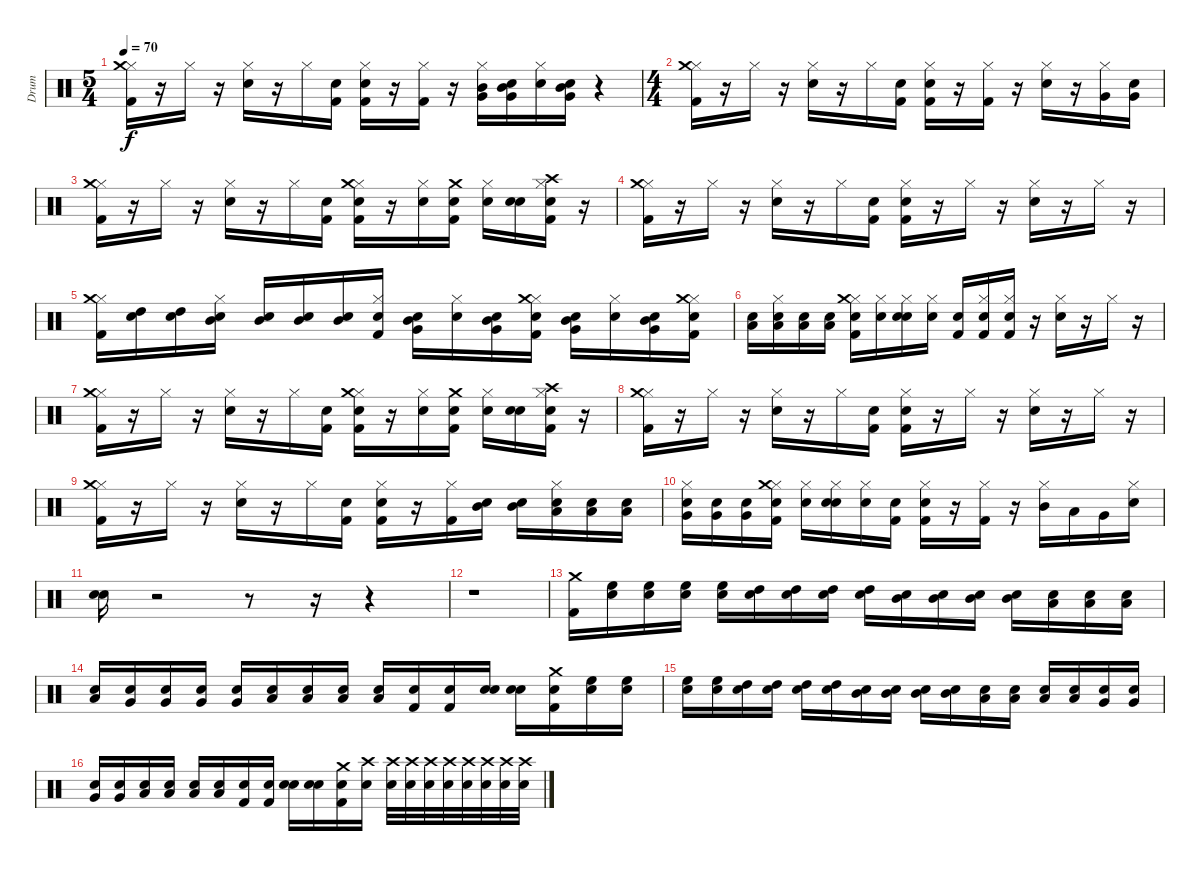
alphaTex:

\track ("Drum" "Drum") {instrument percussion}
\staff {score}
\articulation defaults
\ts (5 4)
\tempo 70
\clef neutral
\ks c
("Kick (hit) 2" "Hi-Hat (closed)" "Crash medium (hit)").16{dy f} r.16 "Hi-Hat (closed)".16 r.16 ("Hi-Hat (closed)" "Snare (hit) 2").16 r.16 "Hi-Hat (closed)".16 ("Snare (hit)" "Kick (hit) 2").16 ("Snare (hit)" "Kick (hit) 2" "Hi-Hat (closed)").16 r.16 ("Kick (hit) 2" "Hi-Hat (closed)").16 r.16 ("Hi-Hat (closed)" "Very Low Tom (hit)" "Mid Tom (hit)").16 ("Snare (hit)" "Mid Tom (hit)" "Very Low Tom (hit)").16 ("Snare (hit)" "Hi-Hat (closed)").16 ("Snare (hit)" "Very Low Tom (hit)" "Mid Tom (hit)").16 r.4 |
\ts (4 4)
("Kick (hit) 2" "Hi-Hat (closed)" "Crash medium (hit)").16 r.16 "Hi-Hat (closed)".16 r.16 ("Hi-Hat (closed)" "Snare (hit) 2").16 r.16 "Hi-Hat (closed)".16 ("Snare (hit)" "Kick (hit) 2").16 ("Snare (hit)" "Kick (hit) 2" "Hi-Hat (closed)").16 r.16 ("Kick (hit) 2" "Hi-Hat (closed)").16 r.16 ("Hi-Hat (closed)" "Snare (hit) 2").16 r.16 ("Hi-Hat (closed)" "Very Low Tom (hit)").16 ("Snare (hit)" "Very Low Tom (hit)").16 |
("Kick (hit) 2" "Hi-Hat (closed)" "Crash medium (hit)").16 r.16 "Hi-Hat (closed)".16 r.16 ("Hi-Hat (closed)" "Snare (hit) 2").16 r.16 "Hi-Hat (closed)".16 ("Snare (hit)" "Kick (hit) 2").16 ("Snare (hit)" "Kick (hit) 2" "Hi-Hat (closed)" "Crash medium (hit)").16 r.16 ("Hi-Hat (closed)" "Snare (hit) 2").16 ("Snare (hit)" "Kick (hit) 2" "Crash medium (hit)").16 ("Snare (hit)" "Hi-Hat (closed)").16 ("Snare (hit)" "Snare (hit) 2").16 ("Snare (hit)" "Kick (hit) 2" "Hi-Hat (closed)" "Crash high (hit)").16 r.16 |
("Kick (hit) 2" "Hi-Hat (closed)" "Crash medium (hit)").16 r.16 "Hi-Hat (closed)".16 r.16 ("Hi-Hat (closed)" "Snare (hit) 2").16 r.16 "Hi-Hat (closed)".16 ("Snare (hit)" "Kick (hit) 2").16 ("Snare (hit)" "Kick (hit) 2" "Hi-Hat (closed)").16 r.16 "Hi-Hat (closed)".16 r.16 ("Hi-Hat (closed)" "Snare (hit) 2").16 r.16 "Hi-Hat (closed)".16 r.16 |
("Kick (hit) 2" "Hi-Hat (closed)" "Crash medium (hit)").16 ("Snare (hit)" "High Tom (hit)").16 ("Snare (hit)" "High Tom (hit)").16 ("Snare (hit)" "Hi-Hat (closed)" "Mid Tom (hit)").16 ("Snare (hit)" "Mid Tom (hit)").16 ("Snare (hit)" "Mid Tom (hit)").16 ("Snare (hit)" "Mid Tom (hit)").16 ("Snare (hit)" "Kick (hit) 2" "Hi-Hat (closed)").16 ("Snare (hit)" "Mid Tom (hit)" "Very Low Tom (hit)").16 ("Snare (hit)" "Hi-Hat (closed)").16 ("Snare (hit)" "Very Low Tom (hit)" "Mid Tom (hit)").16 ("Snare (hit)" "Kick (hit) 2" "Hi-Hat (closed)" "Crash medium (hit)").16 ("Snare (hit)" "Mid Tom (hit)" "Very Low Tom (hit)").16 ("Snare (hit)" "Hi-Hat (closed)").16 ("Snare (hit)" "Very Low Tom (hit)" "Mid Tom (hit)").16 ("Snare (hit)" "Kick (hit) 2" "Hi-Hat (closed)" "Crash medium (hit)").16 |
("Snare (hit)" "Low Tom (hit)").16 ("Snare (hit)" "Low Tom (hit)" "Hi-Hat (closed)").16 ("Snare (hit)" "Low Tom (hit)").16 ("Snare (hit)" "Low Tom (hit)").16 ("Snare (hit)" "Kick (hit) 2" "Hi-Hat (closed)" "Crash medium (hit)").16 ("Snare (hit)" "Hi-Hat (closed)").16 ("Snare (hit)" "Hi-Hat (closed)" "Snare (hit) 2").16 ("Snare (hit)" "Hi-Hat (closed)").16 ("Snare (hit)" "Kick (hit) 2").16 ("Snare (hit)" "Kick (hit) 2" "Hi-Hat (closed)").16 ("Snare (hit)" "Kick (hit) 2" "Hi-Hat (closed)").16 r.16 ("Hi-Hat (closed)" "Snare (hit) 2").16 r.16 "Hi-Hat (closed)".16 r.16 |
("Kick (hit) 2" "Hi-Hat (closed)" "Crash medium (hit)").16 r.16 "Hi-Hat (closed)".16 r.16 ("Hi-Hat (closed)" "Snare (hit) 2").16 r.16 "Hi-Hat (closed)".16 ("Snare (hit)" "Kick (hit) 2").16 ("Snare (hit)" "Kick (hit) 2" "Hi-Hat (closed)" "Crash medium (hit)").16 r.16 ("Hi-Hat (closed)" "Snare (hit) 2").16 ("Snare (hit)" "Kick (hit) 2" "Crash medium (hit)").16 ("Snare (hit)" "Hi-Hat (closed)").16 ("Snare (hit)" "Snare (hit) 2").16 ("Snare (hit)" "Kick (hit) 2" "Hi-Hat (closed)" "Crash high (hit)").16 r.16 |
("Kick (hit) 2" "Hi-Hat (closed)" "Crash medium (hit)").16 r.16 "Hi-Hat (closed)".16 r.16 ("Hi-Hat (closed)" "Snare (hit) 2").16 r.16 "Hi-Hat (closed)".16 ("Snare (hit)" "Kick (hit) 2").16 ("Snare (hit)" "Kick (hit) 2" "Hi-Hat (closed)").16 r.16 "Hi-Hat (closed)".16 r.16 ("Hi-Hat (closed)" "Snare (hit) 2").16 r.16 "Hi-Hat (closed)".16 r.16 |
("Kick (hit) 2" "Hi-Hat (closed)" "Crash medium (hit)").16 r.16 "Hi-Hat (closed)".16 r.16 ("Hi-Hat (closed)" "Snare (hit) 2").16 r.16 "Hi-Hat (closed)".16 ("Snare (hit)" "Kick (hit) 2").16 ("Snare (hit)" "Kick (hit) 2" "Hi-Hat (closed)").16 r.16 ("Kick (hit) 2" "Hi-Hat (closed)").16 ("Snare (hit)" "Mid Tom (hit)").16 ("Snare (hit)" "Mid Tom (hit)").16 ("Snare (hit)" "Hi-Hat (closed)" "Low Tom (hit)").16 ("Snare (hit)" "Low Tom (hit)").16 ("Snare (hit)" "Low Tom (hit)").16 |
("Snare (hit)" "Hi-Hat (closed)" "Very Low Tom (hit)").16 ("Snare (hit)" "Very Low Tom (hit)").16 ("Snare (hit)" "Very Low Tom (hit)").16 ("Snare (hit)" "Kick (hit) 2" "Hi-Hat (closed)" "Crash medium (hit)").16 ("Snare (hit)" "Hi-Hat (closed)").16 ("Snare (hit)" "Hi-Hat (closed)" "Snare (hit) 2").16 ("Snare (hit)" "Hi-Hat (closed)").16 ("Snare (hit)" "Kick (hit) 2").16 ("Snare (hit)" "Kick (hit) 2" "Hi-Hat (closed)").16 r.16 ("Kick (hit) 2" "Hi-Hat (closed)").16 r.16 ("Hi-Hat (closed)" "Mid Tom (hit)").16 "Low Tom (hit)".16 "Very Low Tom (hit)".16 ("Hi-Hat (closed)" "Snare (hit) 2").16 |
("Snare (hit)" "Snare (hit) 2").16 r.2 r.8 r.16 r.4 |
r.1 |
("Kick (hit) 2" "Crash medium (hit)").16 ("Snare (hit)" "High Floor Tom (hit)").16 ("Snare (hit)" "High Floor Tom (hit)").16 ("Snare (hit)" "High Floor Tom (hit)").16 ("Snare (hit)" "High Floor Tom (hit)").16 ("Snare (hit)" "High Tom (hit)").16 ("Snare (hit)" "High Tom (hit)").16 ("Snare (hit)" "High Tom (hit)").16 ("Snare (hit)" "High Tom (hit)").16 ("Snare (hit)" "Mid Tom (hit)").16 ("Snare (hit)" "Mid Tom (hit)").16 ("Snare (hit)" "Mid Tom (hit)").16 ("Snare (hit)" "Mid Tom (hit)").16 ("Snare (hit)" "Low Tom (hit)").16 ("Snare (hit)" "Low Tom (hit)").16 ("Snare (hit)" "Low Tom (hit)").16 |
("Snare (hit)" "Low Tom (hit)").16 ("Snare (hit)" "Very Low Tom (hit)").16 ("Snare (hit)" "Very Low Tom (hit)").16 ("Snare (hit)" "Very Low Tom (hit)").16 ("Snare (hit)" "Very Low Tom (hit)").16 ("Snare (hit)" "Low Floor Tom (hit)").16 ("Snare (hit)" "Low Floor Tom (hit)").16 ("Snare (hit)" "Low Floor Tom (hit)").16 ("Snare (hit)" "Low Floor Tom (hit)").16 ("Snare (hit)" "Kick (hit) 2").16 ("Snare (hit)" "Kick (hit) 2").16 ("Snare (hit)" "Snare (hit) 2").16 ("Snare (hit)" "Snare (hit) 2").16 ("Snare (hit)" "Kick (hit) 2" "Crash medium (hit)").16 ("Snare (hit)" "High Floor Tom (hit)").16 ("Snare (hit)" "High Floor Tom (hit)").16 |
("Snare (hit)" "High Floor Tom (hit)").16 ("Snare (hit)" "High Floor Tom (hit)").16 ("Snare (hit)" "High Tom (hit)").16 ("Snare (hit)" "High Tom (hit)").16 ("Snare (hit)" "High Tom (hit)").16 ("Snare (hit)" "High Tom (hit)").16 ("Snare (hit)" "Mid Tom (hit)").16 ("Snare (hit)" "Mid Tom (hit)").16 ("Snare (hit)" "Mid Tom (hit)").16 ("Snare (hit)" "Mid Tom (hit)").16 ("Snare (hit)" "Low Tom (hit)").16 ("Snare (hit)" "Low Tom (hit)").16 ("Snare (hit)" "Low Tom (hit)").16 ("Snare (hit)" "Low Tom (hit)").16 ("Snare (hit)" "Very Low Tom (hit)").16 ("Snare (hit)" "Very Low Tom (hit)").16 |
("Snare (hit)" "Very Low Tom (hit)").16 ("Snare (hit)" "Very Low Tom (hit)").16 ("Snare (hit)" "Low Floor Tom (hit)").16 ("Snare (hit)" "Low Floor Tom (hit)").16 ("Snare (hit)" "Low Floor Tom (hit)").16 ("Snare (hit)" "Low Floor Tom (hit)").16 ("Snare (hit)" "Kick (hit) 2").16 ("Snare (hit)" "Kick (hit) 2").16 ("Snare (hit)" "Snare (hit) 2").16 ("Snare (hit)" "Snare (hit) 2").16 ("Snare (hit)" "Kick (hit) 2" "Crash medium (hit)").16 ("Snare (hit)" "Crash high (hit)").16 ("Snare (hit)" "Crash high (hit)").32 ("Snare (hit)" "Crash high (hit)").32 ("Snare (hit)" "Crash high (hit)").32 ("Snare (hit)" "Crash high (hit)").32 ("Snare (hit)" "Crash high (hit)").32 ("Snare (hit)" "Crash high (hit)").32 ("Snare (hit)" "Crash high (hit)").32 ("Snare (hit)" "Crash high (hit)").32
